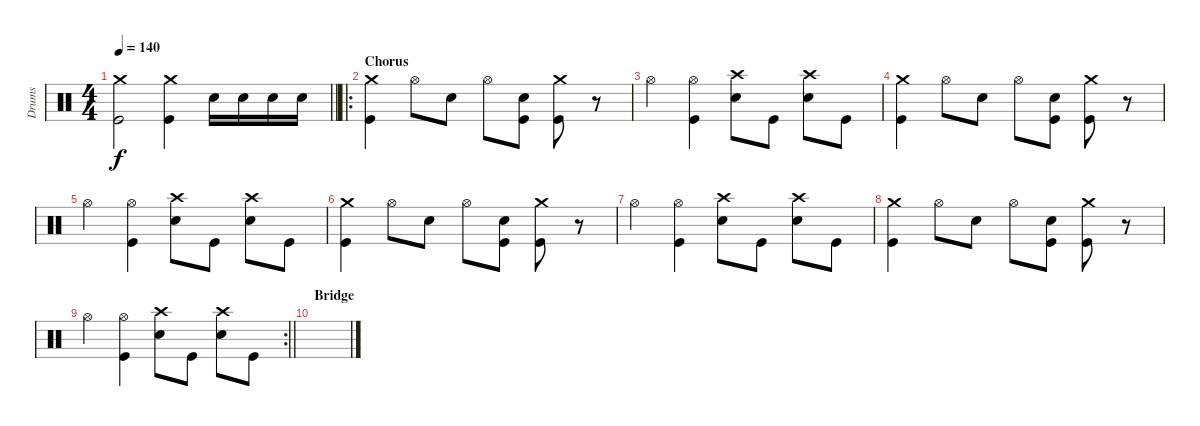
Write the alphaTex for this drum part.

\track ("Drums" "Drums") {instrument percussion}
\staff {score}
\articulation defaults
\ts (4 4)
\tempo 140
\clef neutral
\barLineRight lightlight
\ks c
("Crash medium (hit)" "Kick (hit)").2{dy f} ("Crash medium (hit)" "Kick (hit)").4 "Snare (hit) 2".16 "Snare (hit) 2".16 "Snare (hit) 2".16 "Snare (hit) 2".16 |
\ro
\section ("" "Chorus")
("Crash medium (hit)" "Kick (hit)").4 "Hi-Hat (open)".8 "Snare (hit) 2".8 "Hi-Hat (open)".8 ("Snare (hit) 2" "Kick (hit)").8 ("Crash medium (hit)" "Kick (hit)").8 r.8 |
"Hi-Hat (open)".4 ("Hi-Hat (open)" "Kick (hit)").4 ("Crash high (hit)" "Snare (hit) 2").8 "Kick (hit)".8 ("Crash high (hit)" "Snare (hit) 2").8 "Kick (hit)".8 |
("Crash medium (hit)" "Kick (hit)").4 "Hi-Hat (open)".8 "Snare (hit) 2".8 "Hi-Hat (open)".8 ("Snare (hit) 2" "Kick (hit)").8 ("Crash medium (hit)" "Kick (hit)").8 r.8 |
"Hi-Hat (open)".4 ("Hi-Hat (open)" "Kick (hit)").4 ("Crash high (hit)" "Snare (hit) 2").8 "Kick (hit)".8 ("Crash high (hit)" "Snare (hit) 2").8 "Kick (hit)".8 |
("Crash medium (hit)" "Kick (hit)").4 "Hi-Hat (open)".8 "Snare (hit) 2".8 "Hi-Hat (open)".8 ("Snare (hit) 2" "Kick (hit)").8 ("Crash medium (hit)" "Kick (hit)").8 r.8 |
"Hi-Hat (open)".4 ("Hi-Hat (open)" "Kick (hit)").4 ("Crash high (hit)" "Snare (hit) 2").8 "Kick (hit)".8 ("Crash high (hit)" "Snare (hit) 2").8 "Kick (hit)".8 |
("Crash medium (hit)" "Kick (hit)").4 "Hi-Hat (open)".8 "Snare (hit) 2".8 "Hi-Hat (open)".8 ("Snare (hit) 2" "Kick (hit)").8 ("Crash medium (hit)" "Kick (hit)").8 r.8 |
\rc 2
\barLineRight lightlight "Hi-Hat (open)".4
("Hi-Hat (open)" "Kick (hit)").4 ("Crash high (hit)" "Snare (hit) 2").8 "Kick (hit)".8 ("Crash high (hit)" "Snare (hit) 2").8 "Kick (hit)".8 |
\section ("" "Bridge")
